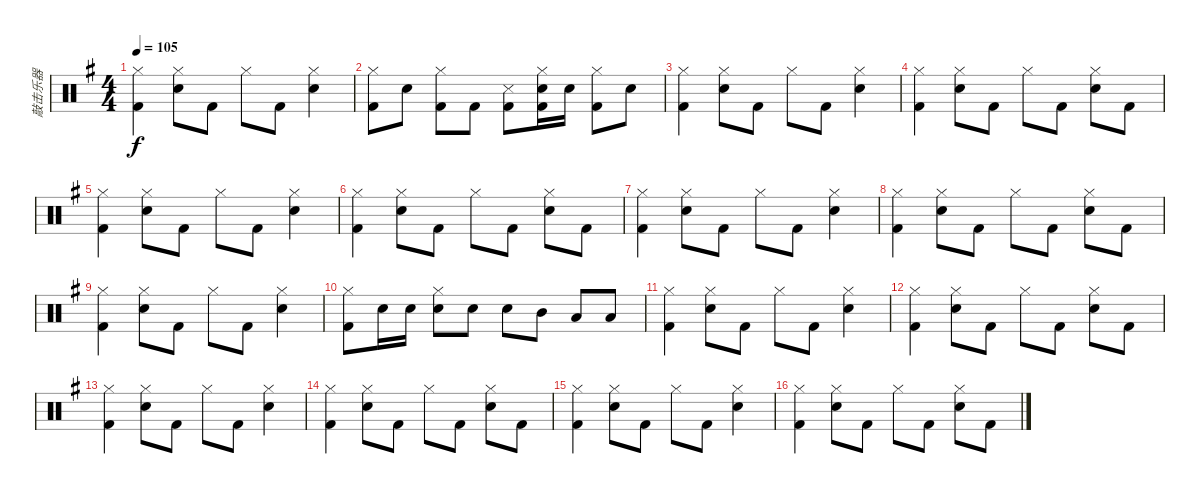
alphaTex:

\track ("敲击乐器" "敲击乐器") {instrument percussion}
\staff {score}
\articulation defaults
\ts (4 4)
\tempo 105
\clef neutral
\ks g
("Hi-Hat (closed)" "Kick (hit) 2").4{dy f} ("Hi-Hat (closed)" "Snare (hit) 2").8 "Kick (hit) 2".8 "Hi-Hat (closed)".8 "Kick (hit) 2".8 ("Hi-Hat (closed)" "Snare (hit) 2").4 |
("Hi-Hat (closed)" "Kick (hit) 2").8 "Snare (hit) 2".8 ("Hi-Hat (closed)" "Kick (hit) 2").8 "Kick (hit) 2".8 ("Snare (side stick) 3" "Kick (hit) 2").8 ("Hi-Hat (closed)" "Snare (hit) 2" "Kick (hit) 2").16 "Snare (hit) 2".16 ("Hi-Hat (closed)" "Kick (hit) 2").8 "Snare (hit) 2".8 |
("Hi-Hat (closed)" "Kick (hit) 2").4 ("Hi-Hat (closed)" "Snare (hit) 2").8 "Kick (hit) 2".8 "Hi-Hat (closed)".8 "Kick (hit) 2".8 ("Hi-Hat (closed)" "Snare (hit) 2").4 |
("Hi-Hat (closed)" "Kick (hit) 2").4 ("Hi-Hat (closed)" "Snare (hit) 2").8 "Kick (hit) 2".8 "Hi-Hat (closed)".8 "Kick (hit) 2".8 ("Hi-Hat (closed)" "Snare (hit) 2").8 "Kick (hit) 2".8 |
("Hi-Hat (closed)" "Kick (hit) 2").4 ("Hi-Hat (closed)" "Snare (hit) 2").8 "Kick (hit) 2".8 "Hi-Hat (closed)".8 "Kick (hit) 2".8 ("Hi-Hat (closed)" "Snare (hit) 2").4 |
("Hi-Hat (closed)" "Kick (hit) 2").4 ("Hi-Hat (closed)" "Snare (hit) 2").8 "Kick (hit) 2".8 "Hi-Hat (closed)".8 "Kick (hit) 2".8 ("Hi-Hat (closed)" "Snare (hit) 2").8 "Kick (hit) 2".8 |
("Hi-Hat (closed)" "Kick (hit) 2").4 ("Hi-Hat (closed)" "Snare (hit) 2").8 "Kick (hit) 2".8 "Hi-Hat (closed)".8 "Kick (hit) 2".8 ("Hi-Hat (closed)" "Snare (hit) 2").4 |
("Hi-Hat (closed)" "Kick (hit) 2").4 ("Hi-Hat (closed)" "Snare (hit) 2").8 "Kick (hit) 2".8 "Hi-Hat (closed)".8 "Kick (hit) 2".8 ("Hi-Hat (closed)" "Snare (hit) 2").8 "Kick (hit) 2".8 |
("Hi-Hat (closed)" "Kick (hit) 2").4 ("Hi-Hat (closed)" "Snare (hit) 2").8 "Kick (hit) 2".8 "Hi-Hat (closed)".8 "Kick (hit) 2".8 ("Hi-Hat (closed)" "Snare (hit) 2").4 |
("Hi-Hat (closed)" "Kick (hit) 2").8 "Snare (hit) 2".16 "Snare (hit) 2".16 ("Hi-Hat (closed)" "Snare (hit) 2").8 "Snare (hit) 2".8 "Snare (hit) 2".8 "Mid Tom (hit)".8 "Low Tom (hit)".8 "Low Floor Tom (hit)".8 |
("Hi-Hat (closed)" "Kick (hit) 2").4 ("Hi-Hat (closed)" "Snare (hit) 2").8 "Kick (hit) 2".8 "Hi-Hat (closed)".8 "Kick (hit) 2".8 ("Hi-Hat (closed)" "Snare (hit) 2").4 |
("Hi-Hat (closed)" "Kick (hit) 2").4 ("Hi-Hat (closed)" "Snare (hit) 2").8 "Kick (hit) 2".8 "Hi-Hat (closed)".8 "Kick (hit) 2".8 ("Hi-Hat (closed)" "Snare (hit) 2").8 "Kick (hit) 2".8 |
("Hi-Hat (closed)" "Kick (hit) 2").4 ("Hi-Hat (closed)" "Snare (hit) 2").8 "Kick (hit) 2".8 "Hi-Hat (closed)".8 "Kick (hit) 2".8 ("Hi-Hat (closed)" "Snare (hit) 2").4 |
("Hi-Hat (closed)" "Kick (hit) 2").4 ("Hi-Hat (closed)" "Snare (hit) 2").8 "Kick (hit) 2".8 "Hi-Hat (closed)".8 "Kick (hit) 2".8 ("Hi-Hat (closed)" "Snare (hit) 2").8 "Kick (hit) 2".8 |
("Hi-Hat (closed)" "Kick (hit) 2").4 ("Hi-Hat (closed)" "Snare (hit) 2").8 "Kick (hit) 2".8 "Hi-Hat (closed)".8 "Kick (hit) 2".8 ("Hi-Hat (closed)" "Snare (hit) 2").4 |
("Hi-Hat (closed)" "Kick (hit) 2").4 ("Hi-Hat (closed)" "Snare (hit) 2").8 "Kick (hit) 2".8 "Hi-Hat (closed)".8 "Kick (hit) 2".8 ("Hi-Hat (closed)" "Snare (hit) 2").8 "Kick (hit) 2".8
